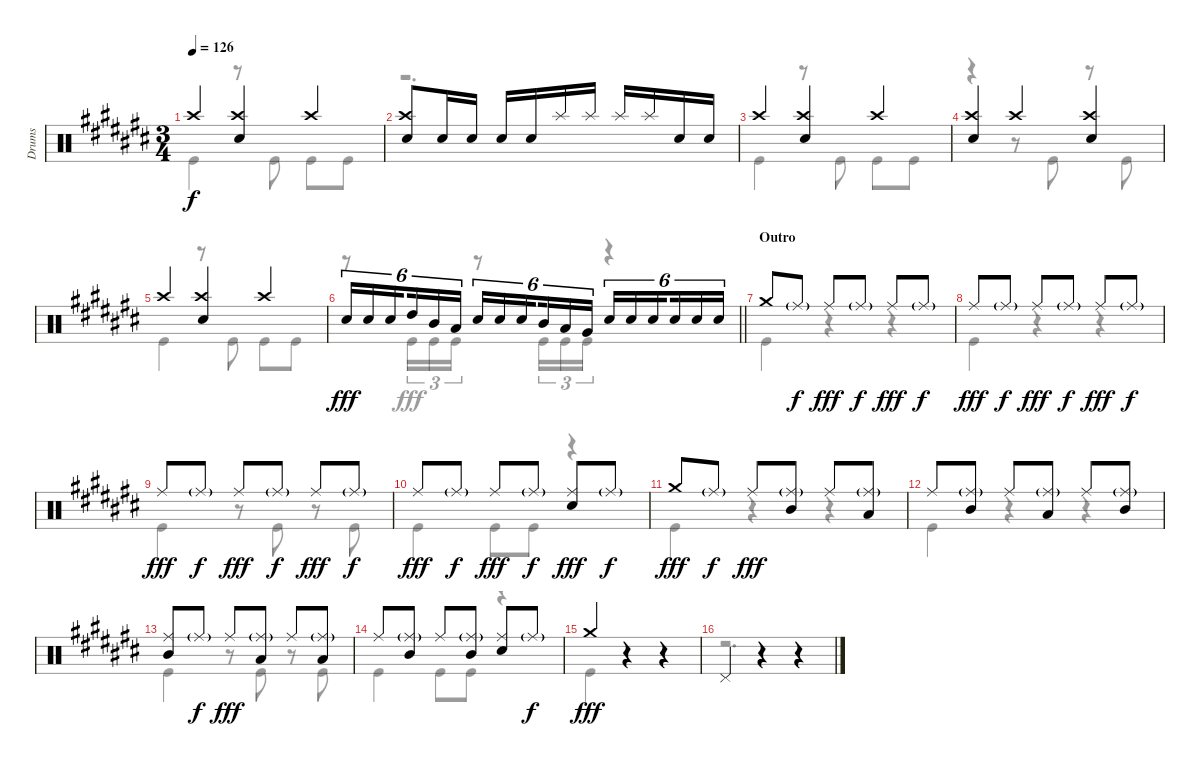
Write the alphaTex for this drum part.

\track ("Drums" "Drums") {instrument percussion}
\staff {score}
\articulation defaults
\voice
\ts (3 4)
\tempo 126
\clef neutral
\ks c# "Crash high (hit)".4{dy f}
("Crash high (hit)" "Electric Snare (hit)").4 "Crash high (hit)".4 |
("Crash high (hit)" "Electric Snare (hit)").8 "Electric Snare (hit)".16 "Electric Snare (hit)".16 "Electric Snare (hit)".16 "Electric Snare (hit)".16 "Splash (hit)".16 "Splash (hit)".16 "Splash (hit)".16 "Splash (hit)".16 "Electric Snare (hit)".16 "Electric Snare (hit)".16 |
"Crash high (hit)".4 ("Crash high (hit)" "Electric Snare (hit)").4 "Crash high (hit)".4 |
("Crash high (hit)" "Electric Snare (hit)").4 "Crash high (hit)".4 ("Crash high (hit)" "Electric Snare (hit)").4 |
"Crash high (hit)".4 ("Crash high (hit)" "Electric Snare (hit)").4 "Crash high (hit)".4 |
\barLineRight lightlight "Electric Snare (hit)".16{tu (6 4) dy fff} "Electric Snare (hit)".16{tu (6 4)} "Electric Snare (hit)".16{tu (6 4) beam splitsecondary} "High Tom (hit)".16{tu (6 4)} "Mid Tom (hit)".16{tu (6 4)} "Low Tom (hit)".16{tu (6 4)} "Electric Snare (hit)".16{tu (6 4)} "Electric Snare (hit)".16{tu (6 4)} "Electric Snare (hit)".16{tu (6 4) beam splitsecondary} "Mid Tom (hit)".16{tu (6 4)} "Low Tom (hit)".16{tu (6 4)} "Very Low Tom (hit)".16{tu (6 4)} "Electric Snare (hit)".16{tu (6 4)} "Electric Snare (hit)".16{tu (6 4)} "Electric Snare (hit)".16{tu (6 4) beam splitsecondary} "Electric Snare (hit)".16{tu (6 4)} "Electric Snare (hit)".16{tu (6 4)} "Electric Snare (hit)".16{tu (6 4)}
|
\section ("" "Outro")
"Crash medium (hit)".8 "Ride (middle)"{g}.8{dy f} "Ride (middle)".8{dy fff} "Ride (middle)"{g}.8{dy f} "Ride (middle)".8{dy fff} "Ride (middle)"{g}.8{dy f} |
"Ride (middle)".8{dy fff} "Ride (middle)"{g}.8{dy f} "Ride (middle)".8{dy fff} "Ride (middle)"{g}.8{dy f} "Ride (middle)".8{dy fff} "Ride (middle)"{g}.8{dy f} |
"Ride (middle)".8{dy fff} "Ride (middle)"{g}.8{dy f} "Ride (middle)".8{dy fff} "Ride (middle)"{g}.8{dy f} "Ride (middle)".8{dy fff} "Ride (middle)"{g}.8{dy f} |
"Ride (middle)".8{dy fff} "Ride (middle)"{g}.8{dy f} "Ride (middle)".8{dy fff} "Ride (middle)"{g}.8{dy f} ("Ride (middle)" "Electric Snare (hit)").8{dy fff} "Ride (middle)"{g}.8{dy f} |
"Crash medium (hit)".8{dy fff} "Ride (middle)"{g}.8{dy f} "Ride (middle)".8{dy fff} ("Ride (middle)"{g} "Mid Tom (hit)").8 "Ride (middle)".8 ("Ride (middle)"{g} "Low Tom (hit)").8 |
"Ride (middle)".8 ("Ride (middle)"{g} "Mid Tom (hit)").8 "Ride (middle)".8 ("Ride (middle)"{g} "Low Tom (hit)").8 "Ride (middle)".8 ("Ride (middle)"{g} "Mid Tom (hit)").8 |
("Ride (middle)" "Mid Tom (hit)").8 "Ride (middle)"{g}.8{dy f} "Ride (middle)".8{dy fff} ("Ride (middle)"{g} "Low Tom (hit)").8 "Ride (middle)".8 ("Ride (middle)"{g} "Low Tom (hit)").8 |
"Ride (middle)".8 ("Ride (middle)"{g} "Mid Tom (hit)").8 "Ride (middle)".8 ("Ride (middle)"{g} "Mid Tom (hit)").8 ("Ride (middle)" "Electric Snare (hit)").8 "Ride (middle)"{g}.8{dy f} |
"Crash medium (hit)".4{dy fff} r.4 r.4 |
"Pedal Hi-Hat (hit)".4 r.4 r.4
\voice
\clef neutral
\ottava regular
\simile none
\ks c# "Kick (hit)".4{dy f}
r.8 "Kick (hit)".8{beam split} "Kick (hit)".8 "Kick (hit)".8 |
r.2{d} |
"Kick (hit)".4 r.8 "Kick (hit)".8{beam split} "Kick (hit)".8 "Kick (hit)".8 |
r.4 r.8 "Kick (hit)".8{beam split} r.8 "Kick (hit)".8 |
"Kick (hit)".4 r.8 "Kick (hit)".8{beam split} "Kick (hit)".8 "Kick (hit)".8 |
\barLineRight lightlight
r.8 "Kick (hit)".16{tu (3 2) dy fff} "Kick (hit)".16{tu (3 2)} "Kick (hit)".16{tu (3 2)} r.8 "Kick (hit)".16{tu (3 2)} "Kick (hit)".16{tu (3 2)} "Kick (hit)".16{tu (3 2)} r.4 |
"Kick (hit)".4 r.4 r.4 |
"Kick (hit)".4 r.4 r.4 |
"Kick (hit)".4 r.8 "Kick (hit)".8 r.8 "Kick (hit)".8 |
"Kick (hit)".4 "Kick (hit)".8 "Kick (hit)".8 r.4 |
"Kick (hit)".4 r.4 r.4 |
"Kick (hit)".4 r.4 r.4 |
"Kick (hit)".4 r.8 "Kick (hit)".8 r.8 "Kick (hit)".8 |
"Kick (hit)".4 "Kick (hit)".8 "Kick (hit)".8 r.4 |
"Kick (hit)".4 r.4 r.4 |
r.2{d}
